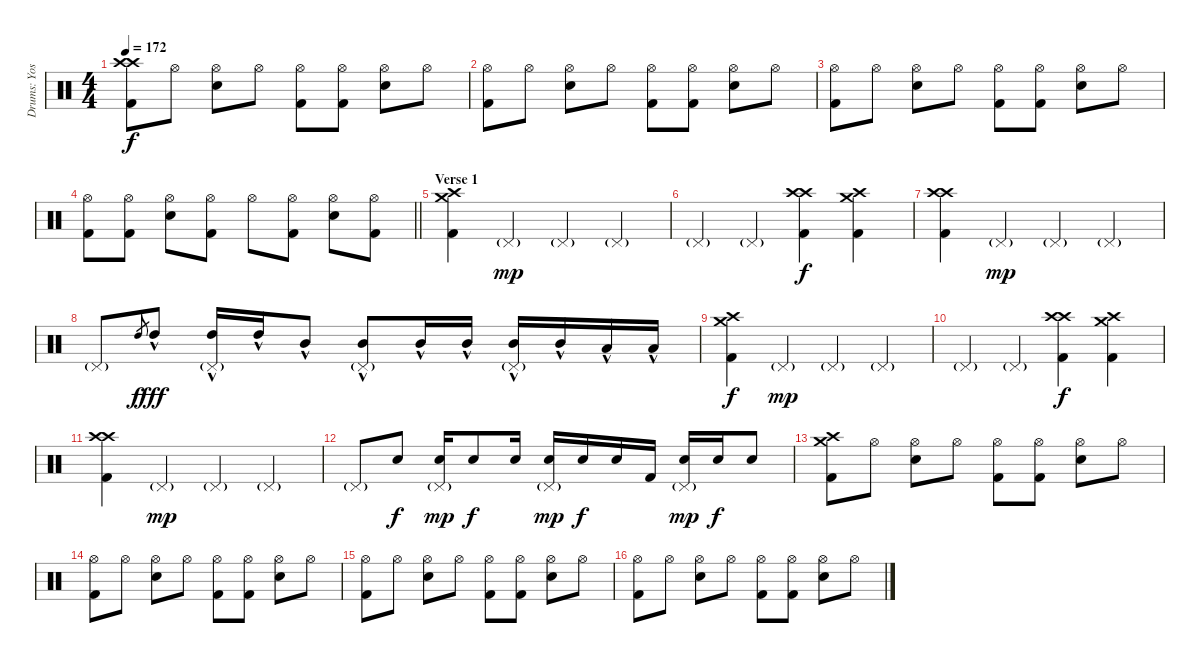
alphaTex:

\track ("Drums: Yoshiki" "Drums: Yos") {instrument percussion}
\staff {score}
\articulation defaults
\ts (4 4)
\tempo 172
\clef neutral
\ks c
("Crash high (hit)" "Crash high (hit)" "Kick (hit) 2").8{dy f} "Hi-Hat (open)".8 ("Hi-Hat (open)" "Snare (hit) 2").8 "Hi-Hat (open)".8 ("Hi-Hat (open)" "Kick (hit) 2").8 ("Hi-Hat (open)" "Kick (hit) 2").8 ("Hi-Hat (open)" "Snare (hit) 2").8 "Hi-Hat (open)".8 |
("Hi-Hat (open)" "Kick (hit) 2").8 "Hi-Hat (open)".8 ("Hi-Hat (open)" "Snare (hit) 2").8 "Hi-Hat (open)".8 ("Hi-Hat (open)" "Kick (hit) 2").8 ("Hi-Hat (open)" "Kick (hit) 2").8 ("Hi-Hat (open)" "Snare (hit) 2").8 "Hi-Hat (open)".8 |
("Hi-Hat (open)" "Kick (hit) 2").8 "Hi-Hat (open)".8 ("Hi-Hat (open)" "Snare (hit) 2").8 "Hi-Hat (open)".8 ("Hi-Hat (open)" "Kick (hit) 2").8 ("Hi-Hat (open)" "Kick (hit) 2").8 ("Hi-Hat (open)" "Snare (hit) 2").8 "Hi-Hat (open)".8 |
\barLineRight lightlight
("Hi-Hat (open)" "Kick (hit) 2").8 ("Hi-Hat (open)" "Kick (hit) 2").8 ("Hi-Hat (open)" "Snare (hit) 2").8 ("Hi-Hat (open)" "Kick (hit) 2").8 "Hi-Hat (open)".8 ("Hi-Hat (open)" "Kick (hit) 2").8 ("Hi-Hat (open)" "Snare (hit) 2").8 ("Hi-Hat (open)" "Kick (hit) 2").8 |
\section ("" "Verse 1")
("Crash high (hit)" "Crash medium (hit)" "Kick (hit) 2").4 "Pedal Hi-Hat (hit)"{g}.4{dy mp} "Pedal Hi-Hat (hit)"{g}.4 "Pedal Hi-Hat (hit)"{g}.4 |
"Pedal Hi-Hat (hit)"{g}.4 "Pedal Hi-Hat (hit)"{g}.4 ("Crash high (hit)" "Crash high (hit)" "Kick (hit) 2").4{dy f} ("Crash high (hit)" "Crash medium (hit)" "Kick (hit) 2").4 |
("Crash high (hit)" "Crash high (hit)" "Kick (hit) 2").4 "Pedal Hi-Hat (hit)"{g}.4{dy mp} "Pedal Hi-Hat (hit)"{g}.4 "Pedal Hi-Hat (hit)"{g}.4 |
"Pedal Hi-Hat (hit)"{g}.8 "High Tom (hit)".8{gr dy f} "High Tom (hit)"{hac}.8{dy fff} ("Pedal Hi-Hat (hit)"{g} "High Tom (hit)"{hac}).16 "High Tom (hit)"{hac}.16 "Mid Tom (hit)"{hac}.8 ("Pedal Hi-Hat (hit)"{g} "Mid Tom (hit)"{hac}).8 "Mid Tom (hit)"{hac}.16 "Mid Tom (hit)"{hac}.16 ("Pedal Hi-Hat (hit)"{g} "Mid Tom (hit)"{hac}).16 "Mid Tom (hit)"{hac}.16 "Low Tom (hit)"{hac}.16 "Low Tom (hit)"{hac}.16 |
("Crash high (hit)" "Crash medium (hit)" "Kick (hit) 2").4{dy f} "Pedal Hi-Hat (hit)"{g}.4{dy mp} "Pedal Hi-Hat (hit)"{g}.4 "Pedal Hi-Hat (hit)"{g}.4 |
"Pedal Hi-Hat (hit)"{g}.4 "Pedal Hi-Hat (hit)"{g}.4 ("Crash high (hit)" "Crash high (hit)" "Kick (hit) 2").4{dy f} ("Crash high (hit)" "Crash medium (hit)" "Kick (hit) 2").4 |
("Crash high (hit)" "Crash high (hit)" "Kick (hit) 2").4 "Pedal Hi-Hat (hit)"{g}.4{dy mp} "Pedal Hi-Hat (hit)"{g}.4 "Pedal Hi-Hat (hit)"{g}.4 |
"Pedal Hi-Hat (hit)"{g}.8 "Snare (hit) 2".8{dy f} ("Pedal Hi-Hat (hit)"{g} "Snare (hit) 2").16{dy mp} "Snare (hit) 2".8{dy f} "Snare (hit) 2".16 ("Pedal Hi-Hat (hit)"{g} "Snare (hit) 2").16{dy mp} "Snare (hit) 2".16{dy f} "Snare (hit) 2".16 "Kick (hit) 2".16 ("Pedal Hi-Hat (hit)"{g} "Snare (hit) 2").16{dy mp} "Snare (hit) 2".16{dy f} "Snare (hit) 2".8 |
("Crash high (hit)" "Crash medium (hit)" "Kick (hit) 2").8 "Hi-Hat (open)".8 ("Hi-Hat (open)" "Snare (hit) 2").8 "Hi-Hat (open)".8 ("Hi-Hat (open)" "Kick (hit) 2").8 ("Hi-Hat (open)" "Kick (hit) 2").8 ("Hi-Hat (open)" "Snare (hit) 2").8 "Hi-Hat (open)".8 |
("Hi-Hat (open)" "Kick (hit) 2").8 "Hi-Hat (open)".8 ("Hi-Hat (open)" "Snare (hit) 2").8 "Hi-Hat (open)".8 ("Hi-Hat (open)" "Kick (hit) 2").8 ("Hi-Hat (open)" "Kick (hit) 2").8 ("Hi-Hat (open)" "Snare (hit) 2").8 "Hi-Hat (open)".8 |
("Hi-Hat (open)" "Kick (hit) 2").8 "Hi-Hat (open)".8 ("Hi-Hat (open)" "Snare (hit) 2").8 "Hi-Hat (open)".8 ("Hi-Hat (open)" "Kick (hit) 2").8 ("Hi-Hat (open)" "Kick (hit) 2").8 ("Hi-Hat (open)" "Snare (hit) 2").8 "Hi-Hat (open)".8 |
("Hi-Hat (open)" "Kick (hit) 2").8 "Hi-Hat (open)".8 ("Hi-Hat (open)" "Snare (hit) 2").8 "Hi-Hat (open)".8 ("Hi-Hat (open)" "Kick (hit) 2").8 ("Hi-Hat (open)" "Kick (hit) 2").8 ("Hi-Hat (open)" "Snare (hit) 2").8 "Hi-Hat (open)".8
